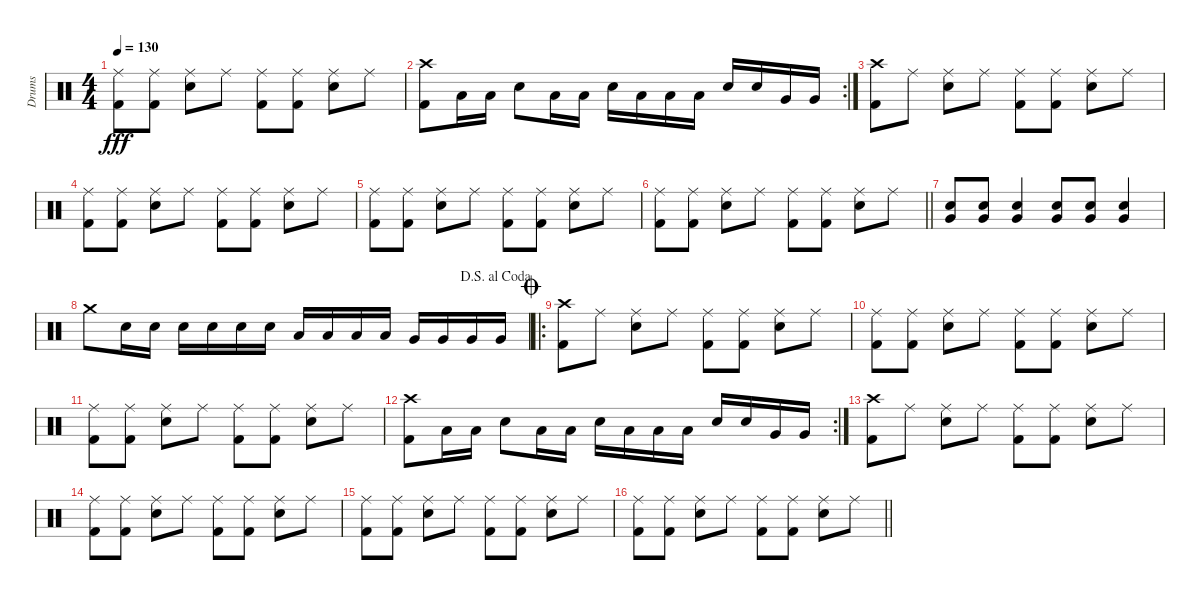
\track ("Drums" "Drums") {instrument percussion}
\staff {score}
\articulation defaults
\ts (4 4)
\tempo 130
\clef neutral
\ks c
("Ride (middle)" "Kick (hit) 2").8{dy fff} ("Ride (middle)" "Kick (hit) 2").8 ("Ride (middle)" "Snare (hit) 2").8 "Ride (middle)".8 ("Ride (middle)" "Kick (hit) 2").8 ("Ride (middle)" "Kick (hit) 2").8 ("Ride (middle)" "Snare (hit) 2").8 "Ride (middle)".8 |
\rc 2
("Crash high (hit)" "Kick (hit) 2").8 "Low Tom (hit)".16 "Low Tom (hit)".16 "Snare (hit) 2".8 "Low Tom (hit)".16 "Low Tom (hit)".16 "Snare (hit) 2".16 "Low Tom (hit)".16 "Low Tom (hit)".16 "Low Tom (hit)".16 "Snare (hit) 2".16 "Snare (hit) 2".16 "Very Low Tom (hit)".16 "Very Low Tom (hit)".16 |
("Crash high (hit)" "Kick (hit) 2").8 "Ride (middle)".8 ("Ride (middle)" "Snare (hit) 2").8 "Ride (middle)".8 ("Ride (middle)" "Kick (hit) 2").8 ("Ride (middle)" "Kick (hit) 2").8 ("Ride (middle)" "Snare (hit) 2").8 "Ride (middle)".8 |
("Ride (middle)" "Kick (hit) 2").8 ("Ride (middle)" "Kick (hit) 2").8 ("Ride (middle)" "Snare (hit) 2").8 "Ride (middle)".8 ("Ride (middle)" "Kick (hit) 2").8 ("Ride (middle)" "Kick (hit) 2").8 ("Ride (middle)" "Snare (hit) 2").8 "Ride (middle)".8 |
("Ride (middle)" "Kick (hit) 2").8 ("Ride (middle)" "Kick (hit) 2").8 ("Ride (middle)" "Snare (hit) 2").8 "Ride (middle)".8 ("Ride (middle)" "Kick (hit) 2").8 ("Ride (middle)" "Kick (hit) 2").8 ("Ride (middle)" "Snare (hit) 2").8 "Ride (middle)".8 |
\barLineRight lightlight
("Ride (middle)" "Kick (hit) 2").8 ("Ride (middle)" "Kick (hit) 2").8 ("Ride (middle)" "Snare (hit) 2").8 "Ride (middle)".8 ("Ride (middle)" "Kick (hit) 2").8 ("Ride (middle)" "Kick (hit) 2").8 ("Ride (middle)" "Snare (hit) 2").8 "Ride (middle)".8 |
("Snare (hit) 2" "Very Low Tom (hit)").8 ("Snare (hit) 2" "Very Low Tom (hit)").8 ("Snare (hit) 2" "Very Low Tom (hit)").4 ("Snare (hit) 2" "Very Low Tom (hit)").8 ("Snare (hit) 2" "Very Low Tom (hit)").8 ("Snare (hit) 2" "Very Low Tom (hit)").4 |
\jump dalsegnoalcoda "Crash medium (hit)".8 "Snare (hit) 2".16 "Snare (hit) 2".16 "Snare (hit) 2".16 "Snare (hit) 2".16 "Snare (hit) 2".16 "Snare (hit) 2".16 "Low Tom (hit)".16 "Low Tom (hit)".16 "Low Tom (hit)".16 "Low Tom (hit)".16 "Very Low Tom (hit)".16 "Very Low Tom (hit)".16 "Very Low Tom (hit)".16 "Very Low Tom (hit)".16
|
\ro
\jump coda
("Crash high (hit)" "Kick (hit) 2").8 "Ride (middle)".8 ("Ride (middle)" "Snare (hit) 2").8 "Ride (middle)".8 ("Ride (middle)" "Kick (hit) 2").8 ("Ride (middle)" "Kick (hit) 2").8 ("Ride (middle)" "Snare (hit) 2").8 "Ride (middle)".8 |
("Ride (middle)" "Kick (hit) 2").8 ("Ride (middle)" "Kick (hit) 2").8 ("Ride (middle)" "Snare (hit) 2").8 "Ride (middle)".8 ("Ride (middle)" "Kick (hit) 2").8 ("Ride (middle)" "Kick (hit) 2").8 ("Ride (middle)" "Snare (hit) 2").8 "Ride (middle)".8 |
("Ride (middle)" "Kick (hit) 2").8 ("Ride (middle)" "Kick (hit) 2").8 ("Ride (middle)" "Snare (hit) 2").8 "Ride (middle)".8 ("Ride (middle)" "Kick (hit) 2").8 ("Ride (middle)" "Kick (hit) 2").8 ("Ride (middle)" "Snare (hit) 2").8 "Ride (middle)".8 |
\rc 2
("Crash high (hit)" "Kick (hit) 2").8 "Low Tom (hit)".16 "Low Tom (hit)".16 "Snare (hit) 2".8 "Low Tom (hit)".16 "Low Tom (hit)".16 "Snare (hit) 2".16 "Low Tom (hit)".16 "Low Tom (hit)".16 "Low Tom (hit)".16 "Snare (hit) 2".16 "Snare (hit) 2".16 "Very Low Tom (hit)".16 "Very Low Tom (hit)".16 |
("Crash high (hit)" "Kick (hit) 2").8 "Ride (middle)".8 ("Ride (middle)" "Snare (hit) 2").8 "Ride (middle)".8 ("Ride (middle)" "Kick (hit) 2").8 ("Ride (middle)" "Kick (hit) 2").8 ("Ride (middle)" "Snare (hit) 2").8 "Ride (middle)".8 |
("Ride (middle)" "Kick (hit) 2").8 ("Ride (middle)" "Kick (hit) 2").8 ("Ride (middle)" "Snare (hit) 2").8 "Ride (middle)".8 ("Ride (middle)" "Kick (hit) 2").8 ("Ride (middle)" "Kick (hit) 2").8 ("Ride (middle)" "Snare (hit) 2").8 "Ride (middle)".8 |
("Ride (middle)" "Kick (hit) 2").8 ("Ride (middle)" "Kick (hit) 2").8 ("Ride (middle)" "Snare (hit) 2").8 "Ride (middle)".8 ("Ride (middle)" "Kick (hit) 2").8 ("Ride (middle)" "Kick (hit) 2").8 ("Ride (middle)" "Snare (hit) 2").8 "Ride (middle)".8 |
\barLineRight lightlight
("Ride (middle)" "Kick (hit) 2").8 ("Ride (middle)" "Kick (hit) 2").8 ("Ride (middle)" "Snare (hit) 2").8 "Ride (middle)".8 ("Ride (middle)" "Kick (hit) 2").8 ("Ride (middle)" "Kick (hit) 2").8 ("Ride (middle)" "Snare (hit) 2").8 "Ride (middle)".8
